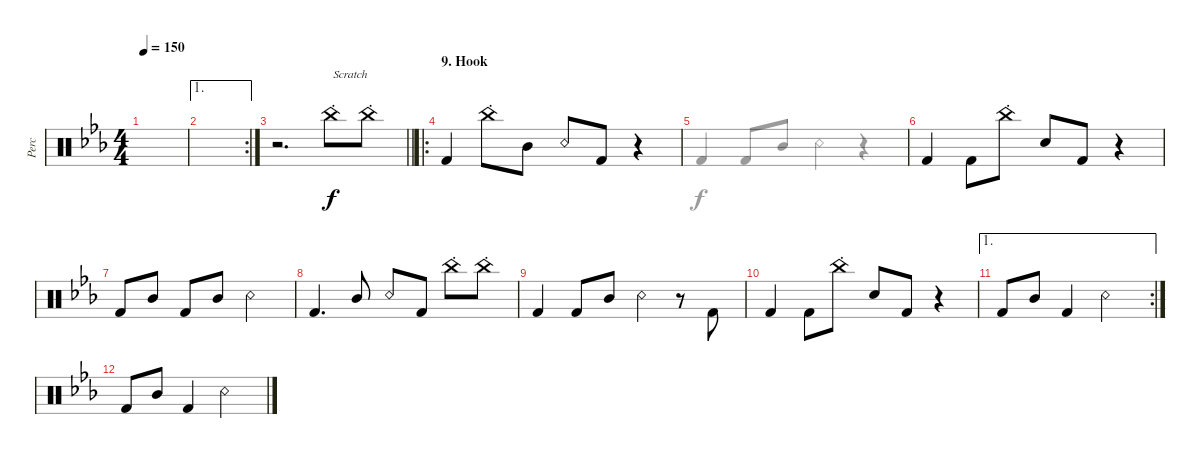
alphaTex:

\defaultSystemsLayout 4
\bracketExtendMode groupsimilarinstruments
\otherSystemsTrackNameOrientation horizontal
\track ("Percussion" "Perc") {instrument percussion}
\staff {score}
\articulation defaults
\voice
\ts (4 4)
\tempo 150
\clef neutral
\ks cminor
|
\ae 1
\rc 2
|
\barLineRight lightlight
r.2{d beam Down} "China (hit)"{st acc forcenatural}.8{txt "Scratch" beam Down} "China (hit)"{st acc forcenatural}.8{beam Down} |
\ro
\section ("" "9. Hook")
"Kick (hit) 2"{acc forcenatural}.4{dy f beam Up} "China (hit)"{st acc forcenatural}.8{beam Down} "Mid Tom (hit)"{acc forcenatural}.8{beam Down} "Snare (rim shot)"{acc forcenatural}.8{beam Up} "Kick (hit) 2"{acc forcenatural}.8{beam Up} r.4{beam Up} |
|
"Kick (hit) 2"{acc forcenatural}.4{beam Up} "Kick (hit) 2"{acc forcenatural}.8{beam Down} "China (hit)"{st acc forcenatural}.8{beam Down} "Snare (hit) 2"{acc forcenatural}.8{beam Up} "Kick (hit) 2"{acc forcenatural}.8{beam Up} r.4{beam Up} |
"Kick (hit) 2"{acc forcenatural}.8{beam Up} "Mid Tom (hit)"{acc forcenatural}.8{beam Up} "Kick (hit) 2"{acc forcenatural}.8{beam Up} "Mid Tom (hit)"{acc forcenatural}.8{beam Up} "Snare (rim shot)"{acc forcenatural}.2{beam Down} |
"Kick (hit) 2"{acc forcenatural}.4{d beam Up} "Mid Tom (hit)"{acc forcenatural}.8{beam Up} "Snare (rim shot)"{acc forcenatural}.8{beam Up} "Kick (hit) 2"{acc forcenatural}.8{beam Up} "China (hit)"{st acc forcenatural}.8{beam Down} "China (hit)"{st acc forcenatural}.8{beam Down} |
"Kick (hit) 2"{acc forcenatural}.4{beam Up} "Kick (hit) 2"{acc forcenatural}.8{beam Up} "Mid Tom (hit)"{acc forcenatural}.8{beam Up} "Snare (rim shot)"{acc forcenatural}.4{beam Down} r.8{beam Down} "Kick (hit) 2"{acc forcenatural}.8{beam Up} |
"Kick (hit) 2"{acc forcenatural}.4{beam Up} "Kick (hit) 2"{acc forcenatural}.8{beam Down} "China (hit)"{st acc forcenatural}.8{beam Down} "Snare (hit) 2"{acc forcenatural}.8{beam Up} "Kick (hit) 2"{acc forcenatural}.8{beam Up} r.4{beam Up} |
\ae 1
\rc 2 "Kick (hit) 2"{acc forcenatural}.8{beam Up} "Mid Tom (hit)"{acc forcenatural}.8{beam Up} "Kick (hit) 2"{acc forcenatural}.4{beam Up} "Snare (rim shot)"{acc forcenatural}.2{beam Down}
|
\scale
0.987316 "Kick (hit) 2"{acc forcenatural}.8{beam Up} "Mid Tom (hit)"{acc forcenatural}.8{beam Up} "Kick (hit) 2"{acc forcenatural}.4{beam Up} "Snare (rim shot)"{acc forcenatural}.2{beam Down} |
\scale
1.01268
\voice
\clef neutral
\ottava regular
\simile none
\ks cminor
|
|
\barLineRight lightlight
|
|
"Kick (hit) 2"{acc forcenatural}.4{beam Up} "Kick (hit) 2"{acc forcenatural}.8{beam Up} "Mid Tom (hit)"{acc forcenatural}.8{beam Up} "Snare (rim shot)"{acc forcenatural}.4{beam Down} r.4{beam Down} |
|
|
|
|
|
|
|
